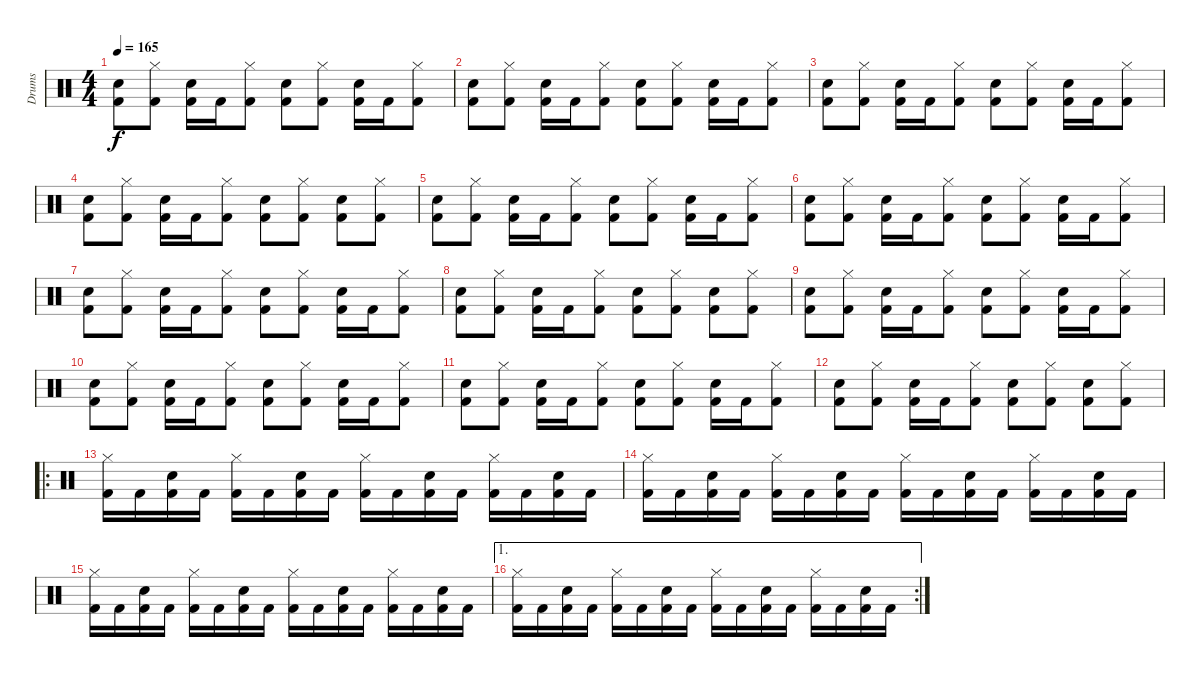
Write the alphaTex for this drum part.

\track ("Drums" "Drums") {instrument percussion}
\staff {score}
\articulation defaults
\ts (4 4)
\tempo 165
\clef neutral
\ks c
("Snare (hit) 2" "Kick (hit) 2").8{dy f} ("Hi-Hat (closed)" "Kick (hit) 2").8 ("Snare (hit) 2" "Kick (hit) 2").16 "Kick (hit) 2".16 ("Hi-Hat (closed)" "Kick (hit) 2").8 ("Snare (hit) 2" "Kick (hit) 2").8 ("Hi-Hat (closed)" "Kick (hit) 2").8 ("Snare (hit) 2" "Kick (hit) 2").16 "Kick (hit) 2".16 ("Hi-Hat (closed)" "Kick (hit) 2").8 |
("Snare (hit) 2" "Kick (hit) 2").8 ("Hi-Hat (closed)" "Kick (hit) 2").8 ("Snare (hit) 2" "Kick (hit) 2").16 "Kick (hit) 2".16 ("Hi-Hat (closed)" "Kick (hit) 2").8 ("Snare (hit) 2" "Kick (hit) 2").8 ("Hi-Hat (closed)" "Kick (hit) 2").8 ("Snare (hit) 2" "Kick (hit) 2").16 "Kick (hit) 2".16 ("Hi-Hat (closed)" "Kick (hit) 2").8 |
("Snare (hit) 2" "Kick (hit) 2").8 ("Hi-Hat (closed)" "Kick (hit) 2").8 ("Snare (hit) 2" "Kick (hit) 2").16 "Kick (hit) 2".16 ("Hi-Hat (closed)" "Kick (hit) 2").8 ("Snare (hit) 2" "Kick (hit) 2").8 ("Hi-Hat (closed)" "Kick (hit) 2").8 ("Snare (hit) 2" "Kick (hit) 2").16 "Kick (hit) 2".16 ("Hi-Hat (closed)" "Kick (hit) 2").8 |
("Snare (hit) 2" "Kick (hit) 2").8 ("Hi-Hat (closed)" "Kick (hit) 2").8 ("Snare (hit) 2" "Kick (hit) 2").16 "Kick (hit) 2".16 ("Hi-Hat (closed)" "Kick (hit) 2").8 ("Snare (hit) 2" "Kick (hit) 2").8 ("Hi-Hat (closed)" "Kick (hit) 2").8 ("Snare (hit) 2" "Kick (hit) 2").8 ("Hi-Hat (closed)" "Kick (hit) 2").8 |
("Snare (hit) 2" "Kick (hit) 2").8 ("Hi-Hat (closed)" "Kick (hit) 2").8 ("Snare (hit) 2" "Kick (hit) 2").16 "Kick (hit) 2".16 ("Hi-Hat (closed)" "Kick (hit) 2").8 ("Snare (hit) 2" "Kick (hit) 2").8 ("Hi-Hat (closed)" "Kick (hit) 2").8 ("Snare (hit) 2" "Kick (hit) 2").16 "Kick (hit) 2".16 ("Hi-Hat (closed)" "Kick (hit) 2").8 |
("Snare (hit) 2" "Kick (hit) 2").8 ("Hi-Hat (closed)" "Kick (hit) 2").8 ("Snare (hit) 2" "Kick (hit) 2").16 "Kick (hit) 2".16 ("Hi-Hat (closed)" "Kick (hit) 2").8 ("Snare (hit) 2" "Kick (hit) 2").8 ("Hi-Hat (closed)" "Kick (hit) 2").8 ("Snare (hit) 2" "Kick (hit) 2").16 "Kick (hit) 2".16 ("Hi-Hat (closed)" "Kick (hit) 2").8 |
("Snare (hit) 2" "Kick (hit) 2").8 ("Hi-Hat (closed)" "Kick (hit) 2").8 ("Snare (hit) 2" "Kick (hit) 2").16 "Kick (hit) 2".16 ("Hi-Hat (closed)" "Kick (hit) 2").8 ("Snare (hit) 2" "Kick (hit) 2").8 ("Hi-Hat (closed)" "Kick (hit) 2").8 ("Snare (hit) 2" "Kick (hit) 2").16 "Kick (hit) 2".16 ("Hi-Hat (closed)" "Kick (hit) 2").8 |
("Snare (hit) 2" "Kick (hit) 2").8 ("Hi-Hat (closed)" "Kick (hit) 2").8 ("Snare (hit) 2" "Kick (hit) 2").16 "Kick (hit) 2".16 ("Hi-Hat (closed)" "Kick (hit) 2").8 ("Snare (hit) 2" "Kick (hit) 2").8 ("Hi-Hat (closed)" "Kick (hit) 2").8 ("Snare (hit) 2" "Kick (hit) 2").8 ("Hi-Hat (closed)" "Kick (hit) 2").8 |
("Snare (hit) 2" "Kick (hit) 2").8 ("Hi-Hat (closed)" "Kick (hit) 2").8 ("Snare (hit) 2" "Kick (hit) 2").16 "Kick (hit) 2".16 ("Hi-Hat (closed)" "Kick (hit) 2").8 ("Snare (hit) 2" "Kick (hit) 2").8 ("Hi-Hat (closed)" "Kick (hit) 2").8 ("Snare (hit) 2" "Kick (hit) 2").16 "Kick (hit) 2".16 ("Hi-Hat (closed)" "Kick (hit) 2").8 |
("Snare (hit) 2" "Kick (hit) 2").8 ("Hi-Hat (closed)" "Kick (hit) 2").8 ("Snare (hit) 2" "Kick (hit) 2").16 "Kick (hit) 2".16 ("Hi-Hat (closed)" "Kick (hit) 2").8 ("Snare (hit) 2" "Kick (hit) 2").8 ("Hi-Hat (closed)" "Kick (hit) 2").8 ("Snare (hit) 2" "Kick (hit) 2").16 "Kick (hit) 2".16 ("Hi-Hat (closed)" "Kick (hit) 2").8 |
("Snare (hit) 2" "Kick (hit) 2").8 ("Hi-Hat (closed)" "Kick (hit) 2").8 ("Snare (hit) 2" "Kick (hit) 2").16 "Kick (hit) 2".16 ("Hi-Hat (closed)" "Kick (hit) 2").8 ("Snare (hit) 2" "Kick (hit) 2").8 ("Hi-Hat (closed)" "Kick (hit) 2").8 ("Snare (hit) 2" "Kick (hit) 2").16 "Kick (hit) 2".16 ("Hi-Hat (closed)" "Kick (hit) 2").8 |
("Snare (hit) 2" "Kick (hit) 2").8 ("Hi-Hat (closed)" "Kick (hit) 2").8 ("Snare (hit) 2" "Kick (hit) 2").16 "Kick (hit) 2".16 ("Hi-Hat (closed)" "Kick (hit) 2").8 ("Snare (hit) 2" "Kick (hit) 2").8 ("Hi-Hat (closed)" "Kick (hit) 2").8 ("Snare (hit) 2" "Kick (hit) 2").8 ("Hi-Hat (closed)" "Kick (hit) 2").8 |
\ro
("Hi-Hat (closed)" "Kick (hit) 2").16 "Kick (hit) 2".16 ("Snare (hit) 2" "Kick (hit) 2").16 "Kick (hit) 2".16 ("Hi-Hat (closed)" "Kick (hit) 2").16 "Kick (hit) 2".16 ("Snare (hit) 2" "Kick (hit) 2").16 "Kick (hit) 2".16 ("Hi-Hat (closed)" "Kick (hit) 2").16 "Kick (hit) 2".16 ("Snare (hit) 2" "Kick (hit) 2").16 "Kick (hit) 2".16 ("Hi-Hat (closed)" "Kick (hit) 2").16 "Kick (hit) 2".16 ("Snare (hit) 2" "Kick (hit) 2").16 "Kick (hit) 2".16 |
("Hi-Hat (closed)" "Kick (hit) 2").16 "Kick (hit) 2".16 ("Snare (hit) 2" "Kick (hit) 2").16 "Kick (hit) 2".16 ("Hi-Hat (closed)" "Kick (hit) 2").16 "Kick (hit) 2".16 ("Snare (hit) 2" "Kick (hit) 2").16 "Kick (hit) 2".16 ("Hi-Hat (closed)" "Kick (hit) 2").16 "Kick (hit) 2".16 ("Snare (hit) 2" "Kick (hit) 2").16 "Kick (hit) 2".16 ("Hi-Hat (closed)" "Kick (hit) 2").16 "Kick (hit) 2".16 ("Snare (hit) 2" "Kick (hit) 2").16 "Kick (hit) 2".16 |
("Hi-Hat (closed)" "Kick (hit) 2").16 "Kick (hit) 2".16 ("Snare (hit) 2" "Kick (hit) 2").16 "Kick (hit) 2".16 ("Hi-Hat (closed)" "Kick (hit) 2").16 "Kick (hit) 2".16 ("Snare (hit) 2" "Kick (hit) 2").16 "Kick (hit) 2".16 ("Hi-Hat (closed)" "Kick (hit) 2").16 "Kick (hit) 2".16 ("Snare (hit) 2" "Kick (hit) 2").16 "Kick (hit) 2".16 ("Hi-Hat (closed)" "Kick (hit) 2").16 "Kick (hit) 2".16 ("Snare (hit) 2" "Kick (hit) 2").16 "Kick (hit) 2".16 |
\ae 1
\rc 2
("Hi-Hat (closed)" "Kick (hit) 2").16 "Kick (hit) 2".16 ("Snare (hit) 2" "Kick (hit) 2").16 "Kick (hit) 2".16 ("Hi-Hat (closed)" "Kick (hit) 2").16 "Kick (hit) 2".16 ("Snare (hit) 2" "Kick (hit) 2").16 "Kick (hit) 2".16 ("Hi-Hat (closed)" "Kick (hit) 2").16 "Kick (hit) 2".16 ("Snare (hit) 2" "Kick (hit) 2").16 "Kick (hit) 2".16 ("Hi-Hat (closed)" "Kick (hit) 2").16 "Kick (hit) 2".16 ("Snare (hit) 2" "Kick (hit) 2").16 "Kick (hit) 2".16
